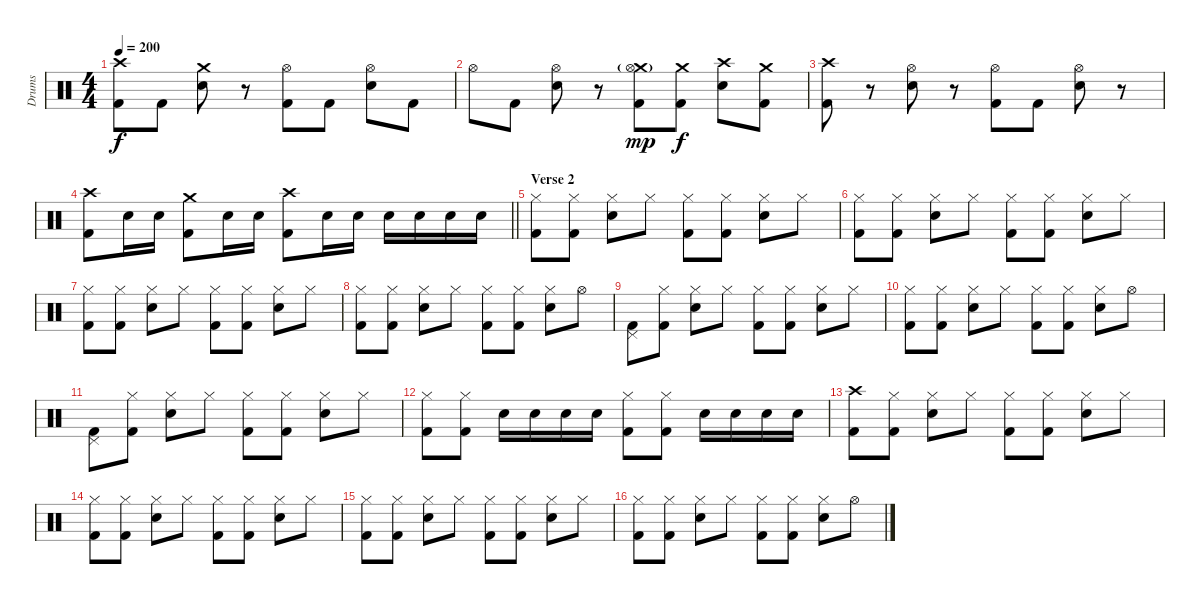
\track ("Drums" "Drums") {instrument percussion}
\staff {score}
\articulation defaults
\ts (4 4)
\tempo 200
\clef neutral
\ks c
("Crash high (hit)" "Kick (hit) 2").8{dy f} "Kick (hit) 2".8 ("Crash medium (hit)" "Electric Snare (hit)").8 r.8 ("Hi-Hat (open)" "Kick (hit) 2").8 "Kick (hit) 2".8 ("Hi-Hat (open)" "Electric Snare (hit)").8 "Kick (hit) 2".8 |
"Hi-Hat (open)".8 "Kick (hit) 2".8 ("Hi-Hat (open)" "Electric Snare (hit)").8 r.8 ("Crash medium (hit)"{g} "Hi-Hat (open)" "Kick (hit) 2").8{dy mp} ("Crash medium (hit)" "Kick (hit) 2").8{dy f} ("Crash high (hit)" "Electric Snare (hit)").8 ("Crash medium (hit)" "Kick (hit) 2").8 |
("Crash high (hit)" "Kick (hit) 2").8 r.8 ("Hi-Hat (open)" "Electric Snare (hit)").8 r.8 ("Hi-Hat (open)" "Kick (hit) 2").8 "Kick (hit) 2".8 ("Hi-Hat (open)" "Electric Snare (hit)").8 r.8 |
\barLineRight lightlight
("Crash high (hit)" "Kick (hit) 2").8 "Electric Snare (hit)".16 "Electric Snare (hit)".16 ("Crash medium (hit)" "Kick (hit) 2").8 "Electric Snare (hit)".16 "Electric Snare (hit)".16 ("Crash high (hit)" "Kick (hit) 2").8 "Electric Snare (hit)".16 "Electric Snare (hit)".16 "Electric Snare (hit)".16 "Electric Snare (hit)".16 "Electric Snare (hit)".16 "Electric Snare (hit)".16 |
\section ("" "Verse 2")
("Hi-Hat (closed)" "Kick (hit) 2").8 ("Hi-Hat (closed)" "Kick (hit) 2").8 ("Hi-Hat (closed)" "Electric Snare (hit)").8 "Hi-Hat (closed)".8 ("Hi-Hat (closed)" "Kick (hit) 2").8 ("Hi-Hat (closed)" "Kick (hit) 2").8 ("Hi-Hat (closed)" "Electric Snare (hit)").8 "Hi-Hat (closed)".8 |
("Hi-Hat (closed)" "Kick (hit) 2").8 ("Hi-Hat (closed)" "Kick (hit) 2").8 ("Hi-Hat (closed)" "Electric Snare (hit)").8 "Hi-Hat (closed)".8 ("Hi-Hat (closed)" "Kick (hit) 2").8 ("Hi-Hat (closed)" "Kick (hit) 2").8 ("Hi-Hat (closed)" "Electric Snare (hit)").8 "Hi-Hat (closed)".8 |
("Hi-Hat (closed)" "Kick (hit) 2").8 ("Hi-Hat (closed)" "Kick (hit) 2").8 ("Hi-Hat (closed)" "Electric Snare (hit)").8 "Hi-Hat (closed)".8 ("Hi-Hat (closed)" "Kick (hit) 2").8 ("Hi-Hat (closed)" "Kick (hit) 2").8 ("Hi-Hat (closed)" "Electric Snare (hit)").8 "Hi-Hat (closed)".8 |
("Hi-Hat (closed)" "Kick (hit) 2").8 ("Hi-Hat (closed)" "Kick (hit) 2").8 ("Hi-Hat (closed)" "Electric Snare (hit)").8 "Hi-Hat (closed)".8 ("Hi-Hat (closed)" "Kick (hit) 2").8 ("Hi-Hat (closed)" "Kick (hit) 2").8 ("Hi-Hat (closed)" "Electric Snare (hit)").8 "Hi-Hat (open)".8 |
("Pedal Hi-Hat (hit)" "Kick (hit) 2").8 ("Hi-Hat (closed)" "Kick (hit) 2").8 ("Hi-Hat (closed)" "Electric Snare (hit)").8 "Hi-Hat (closed)".8 ("Hi-Hat (closed)" "Kick (hit) 2").8 ("Hi-Hat (closed)" "Kick (hit) 2").8 ("Hi-Hat (closed)" "Electric Snare (hit)").8 "Hi-Hat (closed)".8 |
("Hi-Hat (closed)" "Kick (hit) 2").8 ("Hi-Hat (closed)" "Kick (hit) 2").8 ("Hi-Hat (closed)" "Electric Snare (hit)").8 "Hi-Hat (closed)".8 ("Hi-Hat (closed)" "Kick (hit) 2").8 ("Hi-Hat (closed)" "Kick (hit) 2").8 ("Hi-Hat (closed)" "Electric Snare (hit)").8 "Hi-Hat (open)".8 |
("Pedal Hi-Hat (hit)" "Kick (hit) 2").8 ("Hi-Hat (closed)" "Kick (hit) 2").8 ("Hi-Hat (closed)" "Electric Snare (hit)").8 "Hi-Hat (closed)".8 ("Hi-Hat (closed)" "Kick (hit) 2").8 ("Hi-Hat (closed)" "Kick (hit) 2").8 ("Hi-Hat (closed)" "Electric Snare (hit)").8 "Hi-Hat (closed)".8 |
("Hi-Hat (closed)" "Kick (hit) 2").8 ("Hi-Hat (closed)" "Kick (hit) 2").8 "Electric Snare (hit)".16 "Electric Snare (hit)".16 "Electric Snare (hit)".16 "Electric Snare (hit)".16 ("Hi-Hat (closed)" "Kick (hit) 2").8 ("Hi-Hat (closed)" "Kick (hit) 2").8 "Electric Snare (hit)".16 "Electric Snare (hit)".16 "Electric Snare (hit)".16 "Electric Snare (hit)".16 |
("Crash high (hit)" "Kick (hit) 2").8 ("Hi-Hat (closed)" "Kick (hit) 2").8 ("Hi-Hat (closed)" "Electric Snare (hit)").8 "Hi-Hat (closed)".8 ("Hi-Hat (closed)" "Kick (hit) 2").8 ("Hi-Hat (closed)" "Kick (hit) 2").8 ("Hi-Hat (closed)" "Electric Snare (hit)").8 "Hi-Hat (closed)".8 |
("Hi-Hat (closed)" "Kick (hit) 2").8 ("Hi-Hat (closed)" "Kick (hit) 2").8 ("Hi-Hat (closed)" "Electric Snare (hit)").8 "Hi-Hat (closed)".8 ("Hi-Hat (closed)" "Kick (hit) 2").8 ("Hi-Hat (closed)" "Kick (hit) 2").8 ("Hi-Hat (closed)" "Electric Snare (hit)").8 "Hi-Hat (closed)".8 |
("Hi-Hat (closed)" "Kick (hit) 2").8 ("Hi-Hat (closed)" "Kick (hit) 2").8 ("Hi-Hat (closed)" "Electric Snare (hit)").8 "Hi-Hat (closed)".8 ("Hi-Hat (closed)" "Kick (hit) 2").8 ("Hi-Hat (closed)" "Kick (hit) 2").8 ("Hi-Hat (closed)" "Electric Snare (hit)").8 "Hi-Hat (closed)".8 |
("Hi-Hat (closed)" "Kick (hit) 2").8 ("Hi-Hat (closed)" "Kick (hit) 2").8 ("Hi-Hat (closed)" "Electric Snare (hit)").8 "Hi-Hat (closed)".8 ("Hi-Hat (closed)" "Kick (hit) 2").8 ("Hi-Hat (closed)" "Kick (hit) 2").8 ("Hi-Hat (closed)" "Electric Snare (hit)").8 "Hi-Hat (open)".8
